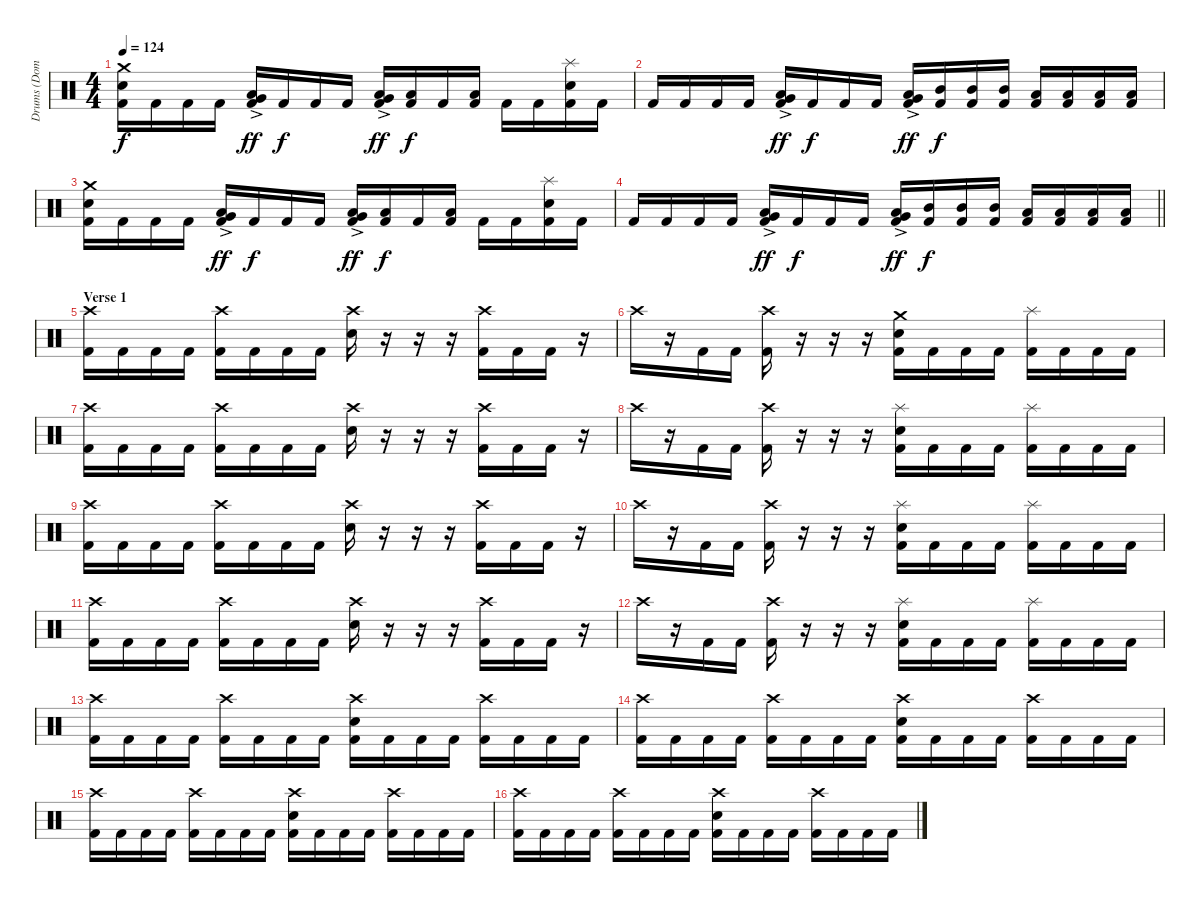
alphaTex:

\track ("Drums (Dominik)" "Drums (Dom") {instrument percussion}
\staff {score}
\articulation defaults
\ts (4 4)
\tempo 124
\clef neutral
\ks c
("Crash medium (hit)" "Electric Snare (hit)" "Kick (hit) 2").16{dy f} "Kick (hit) 2".16 "Kick (hit) 2".16 "Kick (hit) 2".16 ("Very Low Tom (hit)"{ac} "Low Floor Tom (hit)"{ac} "Kick (hit) 2").16{dy ff} "Kick (hit) 2".16{dy f} "Kick (hit) 2".16 "Kick (hit) 2".16 ("Very Low Tom (hit)"{ac} "Low Floor Tom (hit)"{ac} "Kick (hit) 2").16{dy ff} ("Low Tom (hit)" "Kick (hit) 2").16{dy f} "Kick (hit) 2".16 ("Low Floor Tom (hit)" "Kick (hit) 2").16 "Kick (hit) 2".16 "Kick (hit) 2".16 ("Splash (hit)" "Electric Snare (hit)" "Kick (hit) 2").16 "Kick (hit) 2".16 |
"Kick (hit) 2".16 "Kick (hit) 2".16 "Kick (hit) 2".16 "Kick (hit) 2".16 ("Very Low Tom (hit)"{ac} "Low Floor Tom (hit)"{ac} "Kick (hit) 2").16{dy ff} "Kick (hit) 2".16{dy f} "Kick (hit) 2".16 "Kick (hit) 2".16 ("Very Low Tom (hit)"{ac} "Low Floor Tom (hit)"{ac} "Kick (hit) 2").16{dy ff} ("Mid Tom (hit)" "Kick (hit) 2").16{dy f} ("Mid Tom (hit)" "Kick (hit) 2").16 ("Mid Tom (hit)" "Kick (hit) 2").16 ("Low Tom (hit)" "Kick (hit) 2").16 ("Low Tom (hit)" "Kick (hit) 2").16 ("Low Tom (hit)" "Kick (hit) 2").16 ("Low Tom (hit)" "Kick (hit) 2").16 |
("Crash medium (hit)" "Electric Snare (hit)" "Kick (hit) 2").16 "Kick (hit) 2".16 "Kick (hit) 2".16 "Kick (hit) 2".16 ("Very Low Tom (hit)"{ac} "Low Floor Tom (hit)"{ac} "Kick (hit) 2").16{dy ff} "Kick (hit) 2".16{dy f} "Kick (hit) 2".16 "Kick (hit) 2".16 ("Very Low Tom (hit)"{ac} "Low Floor Tom (hit)"{ac} "Kick (hit) 2").16{dy ff} ("Low Tom (hit)" "Kick (hit) 2").16{dy f} "Kick (hit) 2".16 ("Low Floor Tom (hit)" "Kick (hit) 2").16 "Kick (hit) 2".16 "Kick (hit) 2".16 ("Splash (hit)" "Electric Snare (hit)" "Kick (hit) 2").16 "Kick (hit) 2".16 |
\barLineRight lightlight "Kick (hit) 2".16 "Kick (hit) 2".16 "Kick (hit) 2".16 "Kick (hit) 2".16
("Very Low Tom (hit)"{ac} "Low Floor Tom (hit)"{ac} "Kick (hit) 2").16{dy ff} "Kick (hit) 2".16{dy f} "Kick (hit) 2".16 "Kick (hit) 2".16 ("Very Low Tom (hit)"{ac} "Low Floor Tom (hit)"{ac} "Kick (hit) 2").16{dy ff} ("Mid Tom (hit)" "Kick (hit) 2").16{dy f} ("Mid Tom (hit)" "Kick (hit) 2").16 ("Mid Tom (hit)" "Kick (hit) 2").16 ("Low Tom (hit)" "Kick (hit) 2").16 ("Low Tom (hit)" "Kick (hit) 2").16 ("Low Tom (hit)" "Kick (hit) 2").16 ("Low Tom (hit)" "Kick (hit) 2").16 |
\section ("" "Verse 1")
("Crash high (hit)" "Kick (hit) 2").16 "Kick (hit) 2".16 "Kick (hit) 2".16 "Kick (hit) 2".16 ("Crash high (hit)" "Kick (hit) 2").16 "Kick (hit) 2".16 "Kick (hit) 2".16 "Kick (hit) 2".16 ("Crash high (hit)" "Electric Snare (hit)").16 r.16 r.16 r.16 ("Crash high (hit)" "Kick (hit) 2").16 "Kick (hit) 2".16 "Kick (hit) 2".16 r.16 |
"Crash high (hit)".16 r.16 "Kick (hit) 2".16 "Kick (hit) 2".16 ("Crash high (hit)" "Kick (hit) 2").16 r.16 r.16 r.16 ("Crash medium (hit)" "Electric Snare (hit)" "Kick (hit) 2").16 "Kick (hit) 2".16 "Kick (hit) 2".16 "Kick (hit) 2".16 ("Splash (hit)" "Kick (hit) 2").16 "Kick (hit) 2".16 "Kick (hit) 2".16 "Kick (hit) 2".16 |
("Crash high (hit)" "Kick (hit) 2").16 "Kick (hit) 2".16 "Kick (hit) 2".16 "Kick (hit) 2".16 ("Crash high (hit)" "Kick (hit) 2").16 "Kick (hit) 2".16 "Kick (hit) 2".16 "Kick (hit) 2".16 ("Crash high (hit)" "Electric Snare (hit)").16 r.16 r.16 r.16 ("Crash high (hit)" "Kick (hit) 2").16 "Kick (hit) 2".16 "Kick (hit) 2".16 r.16 |
"Crash high (hit)".16 r.16 "Kick (hit) 2".16 "Kick (hit) 2".16 ("Crash high (hit)" "Kick (hit) 2").16 r.16 r.16 r.16 ("Splash (hit)" "Electric Snare (hit)" "Kick (hit) 2").16 "Kick (hit) 2".16 "Kick (hit) 2".16 "Kick (hit) 2".16 ("Splash (hit)" "Kick (hit) 2").16 "Kick (hit) 2".16 "Kick (hit) 2".16 "Kick (hit) 2".16 |
("Crash high (hit)" "Kick (hit) 2").16 "Kick (hit) 2".16 "Kick (hit) 2".16 "Kick (hit) 2".16 ("Crash high (hit)" "Kick (hit) 2").16 "Kick (hit) 2".16 "Kick (hit) 2".16 "Kick (hit) 2".16 ("Crash high (hit)" "Electric Snare (hit)").16 r.16 r.16 r.16 ("Crash high (hit)" "Kick (hit) 2").16 "Kick (hit) 2".16 "Kick (hit) 2".16 r.16 |
"Crash high (hit)".16 r.16 "Kick (hit) 2".16 "Kick (hit) 2".16 ("Crash high (hit)" "Kick (hit) 2").16 r.16 r.16 r.16 ("Splash (hit)" "Electric Snare (hit)" "Kick (hit) 2").16 "Kick (hit) 2".16 "Kick (hit) 2".16 "Kick (hit) 2".16 ("Splash (hit)" "Kick (hit) 2").16 "Kick (hit) 2".16 "Kick (hit) 2".16 "Kick (hit) 2".16 |
("Crash high (hit)" "Kick (hit) 2").16 "Kick (hit) 2".16 "Kick (hit) 2".16 "Kick (hit) 2".16 ("Crash high (hit)" "Kick (hit) 2").16 "Kick (hit) 2".16 "Kick (hit) 2".16 "Kick (hit) 2".16 ("Crash high (hit)" "Electric Snare (hit)").16 r.16 r.16 r.16 ("Crash high (hit)" "Kick (hit) 2").16 "Kick (hit) 2".16 "Kick (hit) 2".16 r.16 |
"Crash high (hit)".16 r.16 "Kick (hit) 2".16 "Kick (hit) 2".16 ("Crash high (hit)" "Kick (hit) 2").16 r.16 r.16 r.16 ("Splash (hit)" "Electric Snare (hit)" "Kick (hit) 2").16 "Kick (hit) 2".16 "Kick (hit) 2".16 "Kick (hit) 2".16 ("Splash (hit)" "Kick (hit) 2").16 "Kick (hit) 2".16 "Kick (hit) 2".16 "Kick (hit) 2".16 |
("Crash high (hit)" "Kick (hit) 2").16 "Kick (hit) 2".16 "Kick (hit) 2".16 "Kick (hit) 2".16 ("Crash high (hit)" "Kick (hit) 2").16 "Kick (hit) 2".16 "Kick (hit) 2".16 "Kick (hit) 2".16 ("Crash high (hit)" "Electric Snare (hit)" "Kick (hit) 2").16 "Kick (hit) 2".16 "Kick (hit) 2".16 "Kick (hit) 2".16 ("Crash high (hit)" "Kick (hit) 2").16 "Kick (hit) 2".16 "Kick (hit) 2".16 "Kick (hit) 2".16 |
("Crash high (hit)" "Kick (hit) 2").16 "Kick (hit) 2".16 "Kick (hit) 2".16 "Kick (hit) 2".16 ("Crash high (hit)" "Kick (hit) 2").16 "Kick (hit) 2".16 "Kick (hit) 2".16 "Kick (hit) 2".16 ("Crash high (hit)" "Electric Snare (hit)" "Kick (hit) 2").16 "Kick (hit) 2".16 "Kick (hit) 2".16 "Kick (hit) 2".16 ("Crash high (hit)" "Kick (hit) 2").16 "Kick (hit) 2".16 "Kick (hit) 2".16 "Kick (hit) 2".16 |
("Crash high (hit)" "Kick (hit) 2").16 "Kick (hit) 2".16 "Kick (hit) 2".16 "Kick (hit) 2".16 ("Crash high (hit)" "Kick (hit) 2").16 "Kick (hit) 2".16 "Kick (hit) 2".16 "Kick (hit) 2".16 ("Crash high (hit)" "Electric Snare (hit)" "Kick (hit) 2").16 "Kick (hit) 2".16 "Kick (hit) 2".16 "Kick (hit) 2".16 ("Crash high (hit)" "Kick (hit) 2").16 "Kick (hit) 2".16 "Kick (hit) 2".16 "Kick (hit) 2".16 |
("Crash high (hit)" "Kick (hit) 2").16 "Kick (hit) 2".16 "Kick (hit) 2".16 "Kick (hit) 2".16 ("Crash high (hit)" "Kick (hit) 2").16 "Kick (hit) 2".16 "Kick (hit) 2".16 "Kick (hit) 2".16 ("Crash high (hit)" "Electric Snare (hit)" "Kick (hit) 2").16 "Kick (hit) 2".16 "Kick (hit) 2".16 "Kick (hit) 2".16 ("Crash high (hit)" "Kick (hit) 2").16 "Kick (hit) 2".16 "Kick (hit) 2".16 "Kick (hit) 2".16
